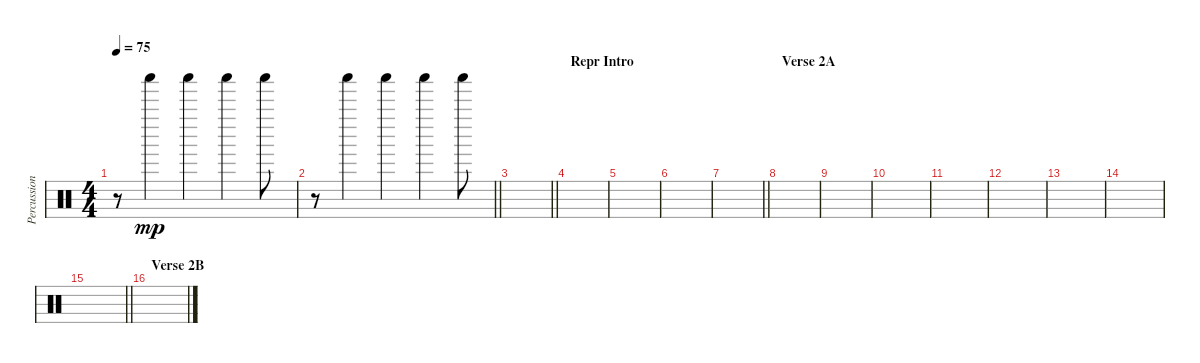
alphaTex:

\track ("Percussions" "Percussion") {instrument percussion}
\staff {score}
\articulation defaults
\ts (4 4)
\tempo 75
\clef neutral
\ks c
r.8{dy mp} "Shaker (hit)".4 "Shaker (hit)".4 "Shaker (hit)".4 "Shaker (hit)".8 |
\barLineRight lightlight
r.8 "Shaker (hit)".4 "Shaker (hit)".4 "Shaker (hit)".4 "Shaker (hit)".8 |
\barLineRight lightlight
|
\section ("" "Repr Intro")
|
|
|
\barLineRight lightlight
|
\section ("" "Verse 2A")
|
|
|
|
|
|
|
\barLineRight lightlight
|
\section ("" "Verse 2B")
